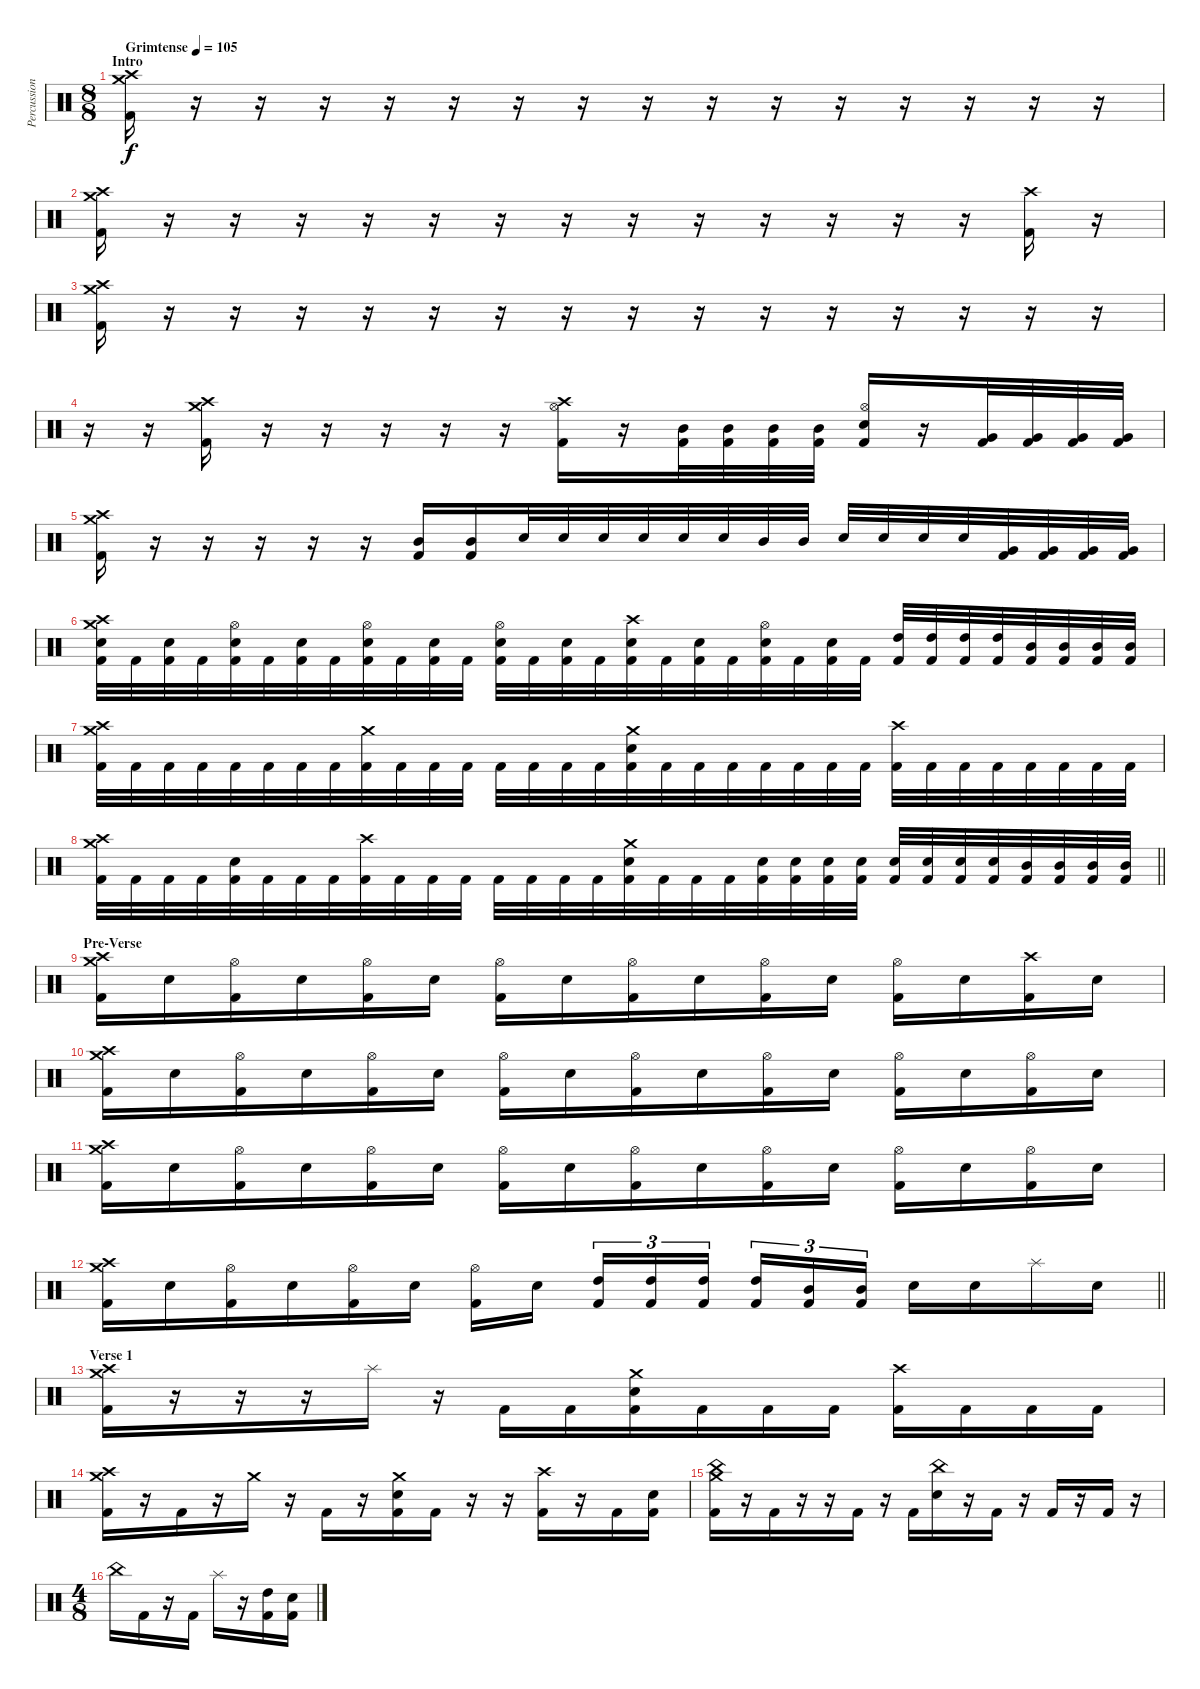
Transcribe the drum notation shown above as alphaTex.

\track ("Percussion" "Percussion") {instrument percussion}
\staff {score}
\articulation defaults
\ts (8 8)
\section ("" "Intro")
\tempo (105 "Grimtense")
\clef neutral
\ks c
("Crash high (hit)" "Crash medium (hit)" "Kick (hit) 2").16{dy f} r.16 r.16 r.16 r.16 r.16 r.16 r.16 r.16 r.16 r.16 r.16 r.16 r.16 r.16 r.16 |
("Crash high (hit)" "Crash medium (hit)" "Kick (hit) 2").16 r.16 r.16 r.16 r.16 r.16 r.16 r.16 r.16 r.16 r.16 r.16 r.16 r.16 ("Crash high (hit)" "Kick (hit) 2").16 r.16 |
("Crash high (hit)" "Crash medium (hit)" "Kick (hit) 2").16 r.16 r.16 r.16 r.16 r.16 r.16 r.16 r.16 r.16 r.16 r.16 r.16 r.16 r.16 r.16 |
r.16 r.16 ("Crash high (hit)" "Crash medium (hit)" "Kick (hit) 2").16 r.16 r.16 r.16 r.16 r.16 ("Crash high (hit)" "Hi-Hat (open)" "Kick (hit) 2").16 r.16 ("Mid Tom (hit)" "Kick (hit) 2").32 ("Mid Tom (hit)" "Kick (hit) 2").32 ("Mid Tom (hit)" "Kick (hit) 2").32 ("Mid Tom (hit)" "Kick (hit) 2").32 ("Hi-Hat (open)" "Snare (hit) 2" "Kick (hit) 2").16 r.16 ("Very Low Tom (hit)" "Kick (hit) 2").32 ("Very Low Tom (hit)" "Kick (hit) 2").32 ("Very Low Tom (hit)" "Kick (hit) 2").32 ("Very Low Tom (hit)" "Kick (hit) 2").32 |
("Crash high (hit)" "Crash medium (hit)" "Kick (hit) 2").16 r.16 r.16 r.16 r.16 r.16 ("Mid Tom (hit)" "Kick (hit) 2").16 ("Mid Tom (hit)" "Kick (hit) 2").16 "Snare (hit) 2".32 "Snare (hit) 2".32 "Snare (hit) 2".32 "Snare (hit) 2".32 "Snare (hit) 2".32 "Snare (hit) 2".32 "Mid Tom (hit)".32 "Mid Tom (hit)".32 "Snare (hit) 2".32 "Snare (hit) 2".32 "Snare (hit) 2".32 "Snare (hit) 2".32 ("Very Low Tom (hit)" "Kick (hit) 2").32 ("Very Low Tom (hit)" "Kick (hit) 2").32 ("Very Low Tom (hit)" "Kick (hit) 2").32 ("Very Low Tom (hit)" "Kick (hit) 2").32 |
("Crash medium (hit)" "Crash high (hit)" "Snare (hit) 2" "Kick (hit) 2").32 "Kick (hit) 2".32 ("Snare (hit) 2" "Kick (hit) 2").32 "Kick (hit) 2".32 ("Hi-Hat (open)" "Snare (hit) 2" "Kick (hit) 2").32 "Kick (hit) 2".32 ("Snare (hit) 2" "Kick (hit) 2").32 "Kick (hit) 2".32 ("Hi-Hat (open)" "Snare (hit) 2" "Kick (hit) 2").32 "Kick (hit) 2".32 ("Snare (hit) 2" "Kick (hit) 2").32 "Kick (hit) 2".32 ("Hi-Hat (open)" "Snare (hit) 2" "Kick (hit) 2").32 "Kick (hit) 2".32 ("Snare (hit) 2" "Kick (hit) 2").32 "Kick (hit) 2".32 ("Crash high (hit)" "Snare (hit) 2" "Kick (hit) 2").32 "Kick (hit) 2".32 ("Snare (hit) 2" "Kick (hit) 2").32 "Kick (hit) 2".32 ("Hi-Hat (open)" "Snare (hit) 2" "Kick (hit) 2").32 "Kick (hit) 2".32 ("Snare (hit) 2" "Kick (hit) 2").32 "Kick (hit) 2".32 ("High Tom (hit)" "Kick (hit) 2").32 ("High Tom (hit)" "Kick (hit) 2").32 ("High Tom (hit)" "Kick (hit) 2").32 ("High Tom (hit)" "Kick (hit) 2").32 ("Mid Tom (hit)" "Kick (hit) 2").32 ("Mid Tom (hit)" "Kick (hit) 2").32 ("Mid Tom (hit)" "Kick (hit) 2").32 ("Mid Tom (hit)" "Kick (hit) 2").32 |
("Crash high (hit)" "Crash medium (hit)" "Kick (hit) 2").32 "Kick (hit) 2".32 "Kick (hit) 2".32 "Kick (hit) 2".32 "Kick (hit) 2".32 "Kick (hit) 2".32 "Kick (hit) 2".32 "Kick (hit) 2".32 ("Crash medium (hit)" "Kick (hit) 2").32 "Kick (hit) 2".32 "Kick (hit) 2".32 "Kick (hit) 2".32 "Kick (hit) 2".32 "Kick (hit) 2".32 "Kick (hit) 2".32 "Kick (hit) 2".32 ("Crash medium (hit)" "Snare (hit) 2" "Kick (hit) 2").32 "Kick (hit) 2".32 "Kick (hit) 2".32 "Kick (hit) 2".32 "Kick (hit) 2".32 "Kick (hit) 2".32 "Kick (hit) 2".32 "Kick (hit) 2".32 ("Crash high (hit)" "Kick (hit) 2").32 "Kick (hit) 2".32 "Kick (hit) 2".32 "Kick (hit) 2".32 "Kick (hit) 2".32 "Kick (hit) 2".32 "Kick (hit) 2".32 "Kick (hit) 2".32 |
\barLineRight lightlight
("Crash medium (hit)" "Crash high (hit)" "Kick (hit) 2").32 "Kick (hit) 2".32 "Kick (hit) 2".32 "Kick (hit) 2".32 ("Snare (hit) 2" "Kick (hit) 2").32 "Kick (hit) 2".32 "Kick (hit) 2".32 "Kick (hit) 2".32 ("Crash high (hit)" "Kick (hit) 2").32 "Kick (hit) 2".32 "Kick (hit) 2".32 "Kick (hit) 2".32 "Kick (hit) 2".32 "Kick (hit) 2".32 "Kick (hit) 2".32 "Kick (hit) 2".32 ("Crash medium (hit)" "Snare (hit) 2" "Kick (hit) 2").32 "Kick (hit) 2".32 "Kick (hit) 2".32 "Kick (hit) 2".32 ("Snare (hit) 2" "Kick (hit) 2").32 ("Snare (hit) 2" "Kick (hit) 2").32 ("Snare (hit) 2" "Kick (hit) 2").32 ("Snare (hit) 2" "Kick (hit) 2").32 ("Snare (hit) 2" "Kick (hit) 2").32 ("Snare (hit) 2" "Kick (hit) 2").32 ("Snare (hit) 2" "Kick (hit) 2").32 ("Snare (hit) 2" "Kick (hit) 2").32 ("Mid Tom (hit)" "Kick (hit) 2").32 ("Mid Tom (hit)" "Kick (hit) 2").32 ("Mid Tom (hit)" "Kick (hit) 2").32 ("Mid Tom (hit)" "Kick (hit) 2").32 |
\section ("" "Pre-Verse ")
("Crash medium (hit)" "Crash high (hit)" "Kick (hit) 2").16 "Snare (hit) 2".16 ("Hi-Hat (open)" "Kick (hit) 2").16 "Snare (hit) 2".16 ("Hi-Hat (open)" "Kick (hit) 2").16 "Snare (hit) 2".16 ("Hi-Hat (open)" "Kick (hit) 2").16 "Snare (hit) 2".16 ("Hi-Hat (open)" "Kick (hit) 2").16 "Snare (hit) 2".16 ("Hi-Hat (open)" "Kick (hit) 2").16 "Snare (hit) 2".16 ("Hi-Hat (open)" "Kick (hit) 2").16 "Snare (hit) 2".16 ("Crash high (hit)" "Kick (hit) 2").16 "Snare (hit) 2".16 |
("Crash medium (hit)" "Crash high (hit)" "Kick (hit) 2").16 "Snare (hit) 2".16 ("Hi-Hat (open)" "Kick (hit) 2").16 "Snare (hit) 2".16 ("Hi-Hat (open)" "Kick (hit) 2").16 "Snare (hit) 2".16 ("Hi-Hat (open)" "Kick (hit) 2").16 "Snare (hit) 2".16 ("Hi-Hat (open)" "Kick (hit) 2").16 "Snare (hit) 2".16 ("Hi-Hat (open)" "Kick (hit) 2").16 "Snare (hit) 2".16 ("Hi-Hat (open)" "Kick (hit) 2").16 "Snare (hit) 2".16 ("Hi-Hat (open)" "Kick (hit) 2").16 "Snare (hit) 2".16 |
("Crash medium (hit)" "Crash high (hit)" "Kick (hit) 2").16 "Snare (hit) 2".16 ("Hi-Hat (open)" "Kick (hit) 2").16 "Snare (hit) 2".16 ("Hi-Hat (open)" "Kick (hit) 2").16 "Snare (hit) 2".16 ("Hi-Hat (open)" "Kick (hit) 2").16 "Snare (hit) 2".16 ("Hi-Hat (open)" "Kick (hit) 2").16 "Snare (hit) 2".16 ("Hi-Hat (open)" "Kick (hit) 2").16 "Snare (hit) 2".16 ("Hi-Hat (open)" "Kick (hit) 2").16 "Snare (hit) 2".16 ("Hi-Hat (open)" "Kick (hit) 2").16 "Snare (hit) 2".16 |
\barLineRight lightlight
("Crash medium (hit)" "Crash high (hit)" "Kick (hit) 2").16 "Snare (hit) 2".16 ("Hi-Hat (open)" "Kick (hit) 2").16 "Snare (hit) 2".16 ("Hi-Hat (open)" "Kick (hit) 2").16 "Snare (hit) 2".16 ("Hi-Hat (open)" "Kick (hit) 2").16 "Snare (hit) 2".16 ("High Tom (hit)" "Kick (hit) 2").16{tu (3 2)} ("High Tom (hit)" "Kick (hit) 2").16{tu (3 2)} ("High Tom (hit)" "Kick (hit) 2").16{tu (3 2)} ("High Tom (hit)" "Kick (hit) 2").16{tu (3 2)} ("Mid Tom (hit)" "Kick (hit) 2").16{tu (3 2)} ("Mid Tom (hit)" "Kick (hit) 2").16{tu (3 2)} "Snare (hit) 2".16 "Snare (hit) 2".16 "Splash (hit)".16 "Snare (hit) 2".16 |
\section ("" "Verse 1")
("Crash medium (hit)" "Crash high (hit)" "Kick (hit) 2").16 r.16 r.16 r.16 "Splash (hit)".16 r.16 "Kick (hit) 2".16 "Kick (hit) 2".16 ("Crash medium (hit)" "Snare (hit) 2" "Kick (hit) 2").16 "Kick (hit) 2".16 "Kick (hit) 2".16 "Kick (hit) 2".16 ("Crash high (hit)" "Kick (hit) 2").16 "Kick (hit) 2".16 "Kick (hit) 2".16 "Kick (hit) 2".16 |
("Crash medium (hit)" "Crash high (hit)" "Kick (hit) 2").16 r.16 "Kick (hit) 2".16 r.16 "Crash medium (hit)".16 r.16 "Kick (hit) 2".16 r.16 ("Crash medium (hit)" "Snare (hit) 2" "Kick (hit) 2").16 "Kick (hit) 2".16 r.16 r.16 ("Crash high (hit)" "Kick (hit) 2").16 r.16 "Kick (hit) 2".16 ("Snare (hit) 2" "Kick (hit) 2").16 |
("Crash medium (hit)" "China (hit)" "Kick (hit) 2").16 r.16 "Kick (hit) 2".16 r.16 r.16 "Kick (hit) 2".16 r.16 "Kick (hit) 2".16 ("China (hit)" "Snare (hit) 2").16 r.16 "Kick (hit) 2".16 r.16 "Kick (hit) 2".16 r.16 "Kick (hit) 2".16 r.16 |
\ts (4 8)
"China (hit)".16 "Kick (hit) 2".16 r.16 "Kick (hit) 2".16 "Splash (hit)".16 r.16 ("High Tom (hit)" "Kick (hit) 2").16 ("Snare (hit) 2" "Kick (hit) 2").16
